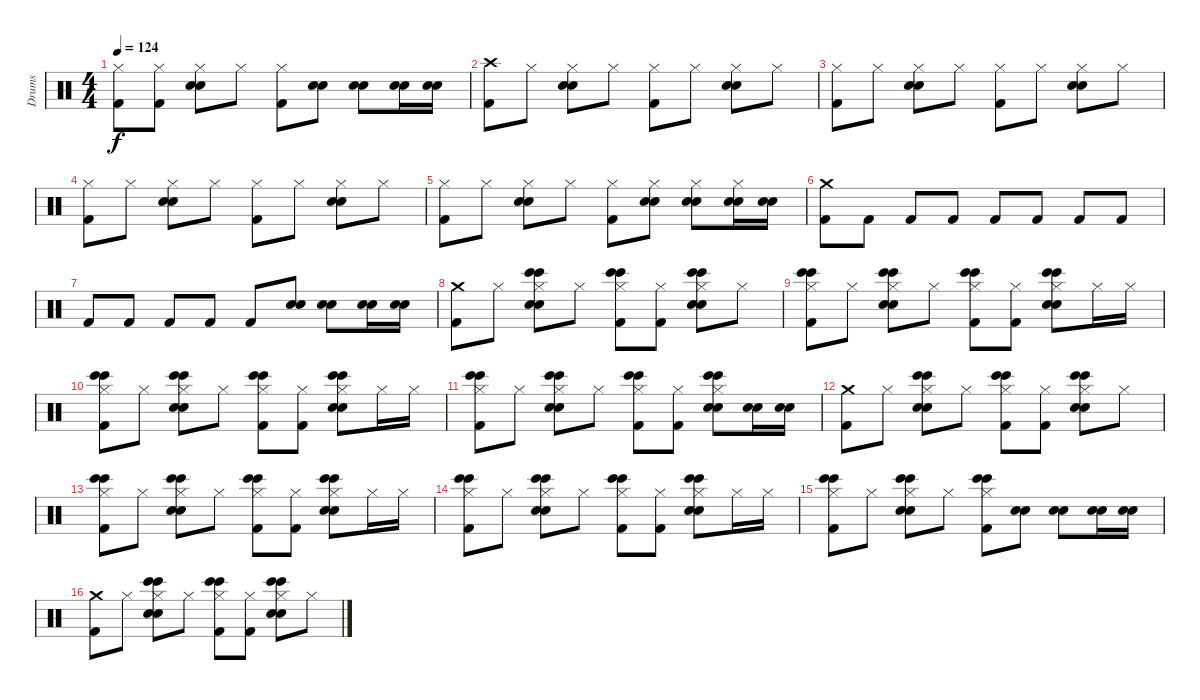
\track ("Drums" "Drums") {instrument percussion}
\staff {score}
\articulation defaults
\ts (4 4)
\tempo 124
\clef neutral
\ks c
("Kick (hit) 2" "Hi-Hat (closed)").8{dy f} ("Kick (hit) 2" "Hi-Hat (closed)").8 ("Snare (hit) 2" "Electric Snare (hit)" "Hi-Hat (closed)").8 "Hi-Hat (closed)".8 ("Kick (hit) 2" "Hi-Hat (closed)").8 ("Snare (hit) 2" "Electric Snare (hit)").8 ("Snare (hit) 2" "Electric Snare (hit)").8 ("Snare (hit) 2" "Electric Snare (hit)").16 ("Electric Snare (hit)" "Snare (hit) 2").16 |
("Kick (hit) 2" "Crash high (hit)").8 "Hi-Hat (closed)".8 ("Electric Snare (hit)" "Snare (hit) 2" "Hi-Hat (closed)").8 "Hi-Hat (closed)".8 ("Kick (hit) 2" "Hi-Hat (closed)").8 "Hi-Hat (closed)".8 ("Electric Snare (hit)" "Snare (hit) 2" "Hi-Hat (closed)").8 "Hi-Hat (closed)".8 |
("Kick (hit) 2" "Hi-Hat (closed)").8 "Hi-Hat (closed)".8 ("Electric Snare (hit)" "Snare (hit) 2" "Hi-Hat (closed)").8 "Hi-Hat (closed)".8 ("Kick (hit) 2" "Hi-Hat (closed)").8 "Hi-Hat (closed)".8 ("Electric Snare (hit)" "Snare (hit) 2" "Hi-Hat (closed)").8 "Hi-Hat (closed)".8 |
("Kick (hit) 2" "Hi-Hat (closed)").8 "Hi-Hat (closed)".8 ("Electric Snare (hit)" "Snare (hit) 2" "Hi-Hat (closed)").8 "Hi-Hat (closed)".8 ("Kick (hit) 2" "Hi-Hat (closed)").8 "Hi-Hat (closed)".8 ("Electric Snare (hit)" "Snare (hit) 2" "Hi-Hat (closed)").8 "Hi-Hat (closed)".8 |
("Kick (hit) 2" "Hi-Hat (closed)").8 "Hi-Hat (closed)".8 ("Electric Snare (hit)" "Snare (hit) 2" "Hi-Hat (closed)").8 "Hi-Hat (closed)".8 ("Kick (hit) 2" "Hi-Hat (closed)").8 ("Electric Snare (hit)" "Snare (hit) 2" "Hi-Hat (closed)").8 ("Electric Snare (hit)" "Snare (hit) 2" "Hi-Hat (closed)").8 ("Electric Snare (hit)" "Snare (hit) 2" "Hi-Hat (closed)").16 ("Electric Snare (hit)" "Snare (hit) 2").16 |
("Crash medium (hit)" "Kick (hit) 2").8 "Kick (hit) 2".8 "Kick (hit) 2".8 "Kick (hit) 2".8 "Kick (hit) 2".8 "Kick (hit) 2".8 "Kick (hit) 2".8 "Kick (hit) 2".8 |
"Kick (hit) 2".8 "Kick (hit) 2".8 "Kick (hit) 2".8 "Kick (hit) 2".8 "Kick (hit) 2".8 ("Electric Snare (hit)" "Snare (hit) 2").8 ("Electric Snare (hit)" "Snare (hit) 2").8 ("Electric Snare (hit)" "Snare (hit) 2").16 ("Electric Snare (hit)" "Snare (hit) 2").16 |
("Crash medium (hit)" "Kick (hit) 2").8 "Hi-Hat (closed)".8 ("Bongo High (hit)" "Electric Snare (hit)" "Snare (hit) 2" "Bongo High (hit)" "Hi-Hat (closed)").8 "Hi-Hat (closed)".8 ("Bongo High (hit)" "Kick (hit) 2" "Bongo High (hit)" "Hi-Hat (closed)").8 ("Kick (hit) 2" "Hi-Hat (closed)").8 ("Bongo High (hit)" "Electric Snare (hit)" "Snare (hit) 2" "Bongo High (hit)" "Hi-Hat (closed)").8 "Hi-Hat (closed)".8 |
("Bongo High (hit)" "Bongo High (hit)" "Hi-Hat (closed)" "Kick (hit) 2").8 "Hi-Hat (closed)".8 ("Bongo High (hit)" "Electric Snare (hit)" "Snare (hit) 2" "Bongo High (hit)" "Hi-Hat (closed)").8 "Hi-Hat (closed)".8 ("Bongo High (hit)" "Kick (hit) 2" "Bongo High (hit)" "Hi-Hat (closed)").8 ("Kick (hit) 2" "Hi-Hat (closed)").8 ("Bongo High (hit)" "Electric Snare (hit)" "Snare (hit) 2" "Bongo High (hit)" "Hi-Hat (closed)").8 "Hi-Hat (closed)".16 "Hi-Hat (closed)".16 |
("Bongo High (hit)" "Bongo High (hit)" "Hi-Hat (closed)" "Kick (hit) 2").8 "Hi-Hat (closed)".8 ("Bongo High (hit)" "Electric Snare (hit)" "Snare (hit) 2" "Bongo High (hit)" "Hi-Hat (closed)").8 "Hi-Hat (closed)".8 ("Bongo High (hit)" "Kick (hit) 2" "Bongo High (hit)" "Hi-Hat (closed)").8 ("Kick (hit) 2" "Hi-Hat (closed)").8 ("Bongo High (hit)" "Electric Snare (hit)" "Snare (hit) 2" "Bongo High (hit)" "Hi-Hat (closed)").8 "Hi-Hat (closed)".16 "Hi-Hat (closed)".16 |
("Bongo High (hit)" "Bongo High (hit)" "Hi-Hat (closed)" "Kick (hit) 2").8 "Hi-Hat (closed)".8 ("Bongo High (hit)" "Electric Snare (hit)" "Snare (hit) 2" "Bongo High (hit)" "Hi-Hat (closed)").8 "Hi-Hat (closed)".8 ("Bongo High (hit)" "Kick (hit) 2" "Bongo High (hit)" "Hi-Hat (closed)").8 ("Kick (hit) 2" "Hi-Hat (closed)").8 ("Bongo High (hit)" "Electric Snare (hit)" "Snare (hit) 2" "Bongo High (hit)" "Hi-Hat (closed)").8 ("Snare (hit) 2" "Electric Snare (hit)").16 ("Snare (hit) 2" "Electric Snare (hit)").16 |
("Kick (hit) 2" "Crash medium (hit)").8 "Hi-Hat (closed)".8 ("Snare (hit) 2" "Bongo High (hit)" "Electric Snare (hit)" "Bongo High (hit)" "Hi-Hat (closed)").8 "Hi-Hat (closed)".8 ("Kick (hit) 2" "Bongo High (hit)" "Bongo High (hit)" "Hi-Hat (closed)").8 ("Kick (hit) 2" "Hi-Hat (closed)").8 ("Electric Snare (hit)" "Bongo High (hit)" "Snare (hit) 2" "Bongo High (hit)" "Hi-Hat (closed)").8 "Hi-Hat (closed)".8 |
("Bongo High (hit)" "Bongo High (hit)" "Hi-Hat (closed)" "Kick (hit) 2").8 "Hi-Hat (closed)".8 ("Bongo High (hit)" "Electric Snare (hit)" "Snare (hit) 2" "Bongo High (hit)" "Hi-Hat (closed)").8 "Hi-Hat (closed)".8 ("Bongo High (hit)" "Kick (hit) 2" "Bongo High (hit)" "Hi-Hat (closed)").8 ("Kick (hit) 2" "Hi-Hat (closed)").8 ("Bongo High (hit)" "Electric Snare (hit)" "Snare (hit) 2" "Bongo High (hit)" "Hi-Hat (closed)").8 "Hi-Hat (closed)".16 "Hi-Hat (closed)".16 |
("Bongo High (hit)" "Hi-Hat (closed)" "Bongo High (hit)" "Kick (hit) 2").8 "Hi-Hat (closed)".8 ("Electric Snare (hit)" "Bongo High (hit)" "Snare (hit) 2" "Bongo High (hit)" "Hi-Hat (closed)").8 "Hi-Hat (closed)".8 ("Bongo High (hit)" "Kick (hit) 2" "Bongo High (hit)" "Hi-Hat (closed)").8 ("Kick (hit) 2" "Hi-Hat (closed)").8 ("Electric Snare (hit)" "Bongo High (hit)" "Snare (hit) 2" "Bongo High (hit)" "Hi-Hat (closed)").8 "Hi-Hat (closed)".16 "Hi-Hat (closed)".16 |
("Bongo High (hit)" "Bongo High (hit)" "Hi-Hat (closed)" "Kick (hit) 2").8 "Hi-Hat (closed)".8 ("Bongo High (hit)" "Electric Snare (hit)" "Snare (hit) 2" "Bongo High (hit)" "Hi-Hat (closed)").8 "Hi-Hat (closed)".8 ("Bongo High (hit)" "Kick (hit) 2" "Bongo High (hit)" "Hi-Hat (closed)").8 ("Snare (hit) 2" "Electric Snare (hit)").8 ("Electric Snare (hit)" "Snare (hit) 2").8 ("Snare (hit) 2" "Electric Snare (hit)").16 ("Snare (hit) 2" "Electric Snare (hit)").16 |
("Kick (hit) 2" "Crash medium (hit)").8 "Hi-Hat (closed)".8 ("Snare (hit) 2" "Bongo High (hit)" "Electric Snare (hit)" "Bongo High (hit)" "Hi-Hat (closed)").8 "Hi-Hat (closed)".8 ("Kick (hit) 2" "Bongo High (hit)" "Bongo High (hit)" "Hi-Hat (closed)").8 ("Kick (hit) 2" "Hi-Hat (closed)").8 ("Electric Snare (hit)" "Bongo High (hit)" "Snare (hit) 2" "Bongo High (hit)" "Hi-Hat (closed)").8 "Hi-Hat (closed)".8
